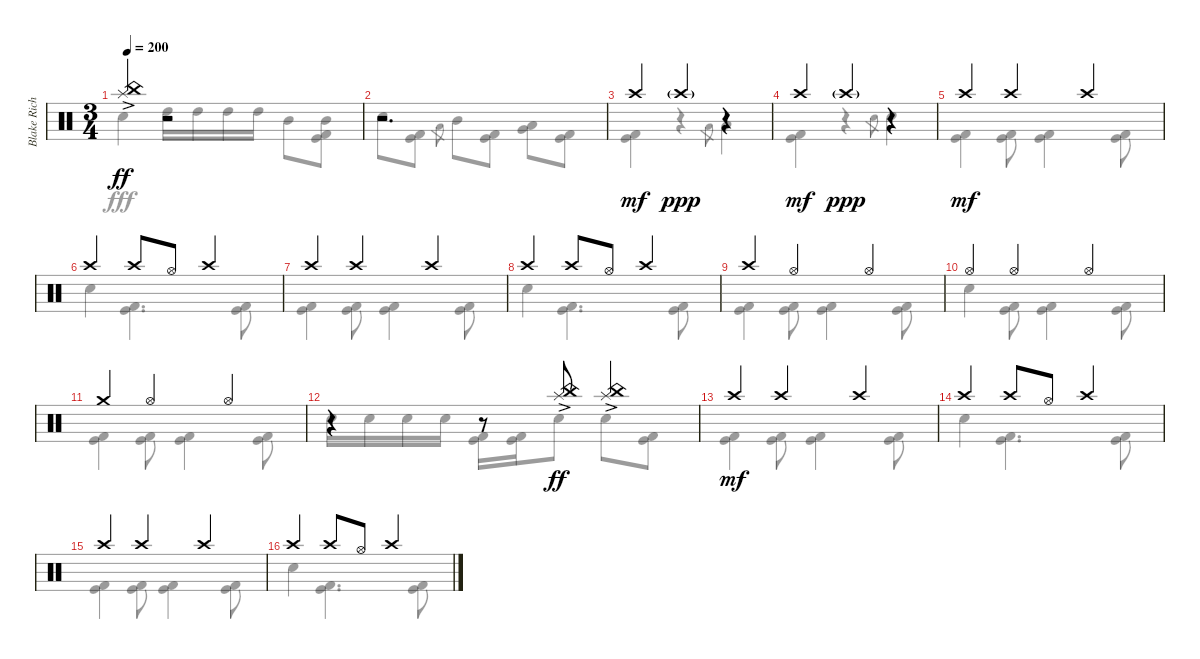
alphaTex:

\track ("Blake Richardson Drums" "Blake Rich") {instrument percussion}
\staff {score}
\articulation defaults
\voice
\ts (3 4)
\tempo 200
\clef neutral
\ks c
("China (hit)" "Splash (hit)"{ac}).4{dy ff} r.2 |
r.2{d} |
"Crash high (hit)".4{dy mf} "Crash high (hit)"{g}.4{dy ppp} r.4 |
"Crash high (hit)".4{dy mf} "Crash high (hit)"{g}.4{dy ppp} r.4 |
"Crash high (hit)".4{dy mf} "Crash high (hit)".4 "Crash high (hit)".4 |
"Crash high (hit)".4 "Crash high (hit)".8 "Hi-Hat (open)".8 "Crash high (hit)".4 |
"Crash high (hit)".4 "Crash high (hit)".4 "Crash high (hit)".4 |
"Crash high (hit)".4 "Crash high (hit)".8 "Hi-Hat (open)".8 "Crash high (hit)".4 |
"Crash high (hit)".4 "Hi-Hat (open)".4 "Hi-Hat (open)".4 |
"Hi-Hat (open)".4 "Hi-Hat (open)".4 "Hi-Hat (open)".4 |
"Crash medium (hit)".4 "Hi-Hat (open)".4 "Hi-Hat (open)".4 |
r.4 r.8 ("China (hit)" "Splash (hit)"{ac}).8{dy ff} ("China (hit)" "Splash (hit)"{ac}).4 |
"Crash high (hit)".4{dy mf} "Crash high (hit)".4 "Crash high (hit)".4 |
"Crash high (hit)".4 "Crash high (hit)".8 "Hi-Hat (open)".8 "Crash high (hit)".4 |
"Crash high (hit)".4 "Crash high (hit)".4 "Crash high (hit)".4 |
"Crash high (hit)".4 "Crash high (hit)".8 "Hi-Hat (open)".8 "Crash high (hit)".4
\voice
\clef neutral
\ottava regular
\simile none
\ks c "Electric Snare (hit)".4{dy fff} "High Tom (hit)".16 "High Tom (hit)".16 "High Tom (hit)".16 "High Tom (hit)".16 "Mid Tom (hit)".8
("Mid Tom (hit)" "Kick (hit)" "Kick (hit) 2").8 |
"Electric Snare (hit)".8 ("Kick (hit)" "Kick (hit) 2").8 "Low Tom (hit)".8{gr} "Mid Tom (hit)".8 ("Kick (hit)" "Kick (hit) 2").8 ("Low Tom (hit)" "Very Low Tom (hit)").8 ("Kick (hit)" "Kick (hit) 2").8 |
("Kick (hit)" "Kick (hit) 2").4 r.4 "Low Tom (hit)".8{gr} "Low Tom (hit)".4 |
("Kick (hit)" "Kick (hit) 2").4 r.4 "Electric Snare (hit)".8{gr} "Electric Snare (hit)".4 |
("Kick (hit)" "Kick (hit) 2").4 ("Kick (hit)" "Kick (hit) 2").8 ("Kick (hit)" "Kick (hit) 2").4 ("Kick (hit)" "Kick (hit) 2").8 |
"Electric Snare (hit)".4 ("Kick (hit)" "Kick (hit) 2").4{d} ("Kick (hit)" "Kick (hit) 2").8 |
("Kick (hit)" "Kick (hit) 2").4 ("Kick (hit)" "Kick (hit) 2").8 ("Kick (hit)" "Kick (hit) 2").4 ("Kick (hit)" "Kick (hit) 2").8 |
"Electric Snare (hit)".4 ("Kick (hit)" "Kick (hit) 2").4{d} ("Kick (hit)" "Kick (hit) 2").8 |
("Kick (hit)" "Kick (hit) 2").4 ("Kick (hit)" "Kick (hit) 2").8 ("Kick (hit)" "Kick (hit) 2").4 ("Kick (hit)" "Kick (hit) 2").8 |
"Electric Snare (hit)".4 ("Kick (hit)" "Kick (hit) 2").8 ("Kick (hit)" "Kick (hit) 2").4 ("Kick (hit)" "Kick (hit) 2").8 |
("Kick (hit)" "Kick (hit) 2").4 ("Kick (hit)" "Kick (hit) 2").8 ("Kick (hit)" "Kick (hit) 2").4 ("Kick (hit)" "Kick (hit) 2").8 |
"Electric Snare (hit)".16 "Electric Snare (hit)".16 "Electric Snare (hit)".16 "Electric Snare (hit)".16 ("Kick (hit)" "Kick (hit) 2").16 ("Kick (hit)" "Kick (hit) 2").16 "Electric Snare (hit)".8 "Electric Snare (hit)".8 ("Kick (hit)" "Kick (hit) 2").8 |
("Kick (hit)" "Kick (hit) 2").4 ("Kick (hit)" "Kick (hit) 2").8 ("Kick (hit)" "Kick (hit) 2").4 ("Kick (hit)" "Kick (hit) 2").8 |
"Electric Snare (hit)".4 ("Kick (hit)" "Kick (hit) 2").4{d} ("Kick (hit)" "Kick (hit) 2").8 |
("Kick (hit)" "Kick (hit) 2").4 ("Kick (hit)" "Kick (hit) 2").8 ("Kick (hit)" "Kick (hit) 2").4 ("Kick (hit)" "Kick (hit) 2").8 |
"Electric Snare (hit)".4 ("Kick (hit)" "Kick (hit) 2").4{d} ("Kick (hit)" "Kick (hit) 2").8
